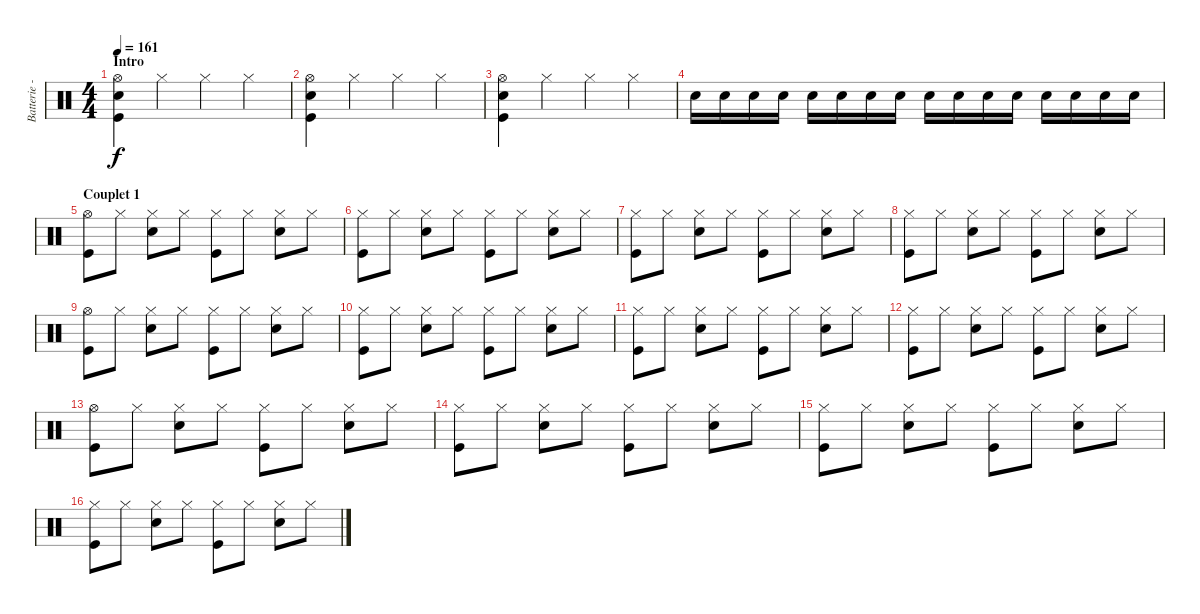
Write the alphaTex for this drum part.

\track ("Batterie - Alex" "Batterie -") {instrument percussion}
\staff {score}
\articulation defaults
\ts (4 4)
\section ("" "Intro")
\tempo 161
\clef neutral
\ks c
("Hi-Hat (open)" "Snare (hit) 2" "Kick (hit)").4{dy f} "Hi-Hat (closed)".4 "Hi-Hat (closed)".4 "Hi-Hat (closed)".4 |
("Hi-Hat (open)" "Snare (hit) 2" "Kick (hit)").4 "Hi-Hat (closed)".4 "Hi-Hat (closed)".4 "Hi-Hat (closed)".4 |
("Hi-Hat (open)" "Snare (hit) 2" "Kick (hit)").4 "Hi-Hat (closed)".4 "Hi-Hat (closed)".4 "Hi-Hat (closed)".4 |
"Snare (hit) 2".16 "Snare (hit) 2".16 "Snare (hit) 2".16 "Snare (hit) 2".16 "Snare (hit) 2".16 "Snare (hit) 2".16 "Snare (hit) 2".16 "Snare (hit) 2".16 "Snare (hit) 2".16 "Snare (hit) 2".16 "Snare (hit) 2".16 "Snare (hit) 2".16 "Snare (hit) 2".16 "Snare (hit) 2".16 "Snare (hit) 2".16 "Snare (hit) 2".16 |
\section ("" "Couplet 1")
("Hi-Hat (open)" "Kick (hit)").8 "Hi-Hat (closed)".8 ("Hi-Hat (closed)" "Snare (hit) 2").8 "Hi-Hat (closed)".8 ("Hi-Hat (closed)" "Kick (hit)").8 "Hi-Hat (closed)".8 ("Hi-Hat (closed)" "Snare (hit) 2").8 "Hi-Hat (closed)".8 |
("Hi-Hat (closed)" "Kick (hit)").8 "Hi-Hat (closed)".8 ("Hi-Hat (closed)" "Snare (hit) 2").8 "Hi-Hat (closed)".8 ("Hi-Hat (closed)" "Kick (hit)").8 "Hi-Hat (closed)".8 ("Hi-Hat (closed)" "Snare (hit) 2").8 "Hi-Hat (closed)".8 |
("Hi-Hat (closed)" "Kick (hit)").8 "Hi-Hat (closed)".8 ("Hi-Hat (closed)" "Snare (hit) 2").8 "Hi-Hat (closed)".8 ("Hi-Hat (closed)" "Kick (hit)").8 "Hi-Hat (closed)".8 ("Hi-Hat (closed)" "Snare (hit) 2").8 "Hi-Hat (closed)".8 |
("Hi-Hat (closed)" "Kick (hit)").8 "Hi-Hat (closed)".8 ("Hi-Hat (closed)" "Snare (hit) 2").8 "Hi-Hat (closed)".8 ("Hi-Hat (closed)" "Kick (hit)").8 "Hi-Hat (closed)".8 ("Hi-Hat (closed)" "Snare (hit) 2").8 "Hi-Hat (closed)".8 |
("Hi-Hat (open)" "Kick (hit)").8 "Hi-Hat (closed)".8 ("Hi-Hat (closed)" "Snare (hit) 2").8 "Hi-Hat (closed)".8 ("Hi-Hat (closed)" "Kick (hit)").8 "Hi-Hat (closed)".8 ("Hi-Hat (closed)" "Snare (hit) 2").8 "Hi-Hat (closed)".8 |
("Hi-Hat (closed)" "Kick (hit)").8 "Hi-Hat (closed)".8 ("Hi-Hat (closed)" "Snare (hit) 2").8 "Hi-Hat (closed)".8 ("Hi-Hat (closed)" "Kick (hit)").8 "Hi-Hat (closed)".8 ("Hi-Hat (closed)" "Snare (hit) 2").8 "Hi-Hat (closed)".8 |
("Hi-Hat (closed)" "Kick (hit)").8 "Hi-Hat (closed)".8 ("Hi-Hat (closed)" "Snare (hit) 2").8 "Hi-Hat (closed)".8 ("Hi-Hat (closed)" "Kick (hit)").8 "Hi-Hat (closed)".8 ("Hi-Hat (closed)" "Snare (hit) 2").8 "Hi-Hat (closed)".8 |
("Hi-Hat (closed)" "Kick (hit)").8 "Hi-Hat (closed)".8 ("Hi-Hat (closed)" "Snare (hit) 2").8 "Hi-Hat (closed)".8 ("Hi-Hat (closed)" "Kick (hit)").8 "Hi-Hat (closed)".8 ("Hi-Hat (closed)" "Snare (hit) 2").8 "Hi-Hat (closed)".8 |
("Hi-Hat (open)" "Kick (hit)").8 "Hi-Hat (closed)".8 ("Hi-Hat (closed)" "Snare (hit) 2").8 "Hi-Hat (closed)".8 ("Hi-Hat (closed)" "Kick (hit)").8 "Hi-Hat (closed)".8 ("Hi-Hat (closed)" "Snare (hit) 2").8 "Hi-Hat (closed)".8 |
("Hi-Hat (closed)" "Kick (hit)").8 "Hi-Hat (closed)".8 ("Hi-Hat (closed)" "Snare (hit) 2").8 "Hi-Hat (closed)".8 ("Hi-Hat (closed)" "Kick (hit)").8 "Hi-Hat (closed)".8 ("Hi-Hat (closed)" "Snare (hit) 2").8 "Hi-Hat (closed)".8 |
("Hi-Hat (closed)" "Kick (hit)").8 "Hi-Hat (closed)".8 ("Hi-Hat (closed)" "Snare (hit) 2").8 "Hi-Hat (closed)".8 ("Hi-Hat (closed)" "Kick (hit)").8 "Hi-Hat (closed)".8 ("Hi-Hat (closed)" "Snare (hit) 2").8 "Hi-Hat (closed)".8 |
("Hi-Hat (closed)" "Kick (hit)").8 "Hi-Hat (closed)".8 ("Hi-Hat (closed)" "Snare (hit) 2").8 "Hi-Hat (closed)".8 ("Hi-Hat (closed)" "Kick (hit)").8 "Hi-Hat (closed)".8 ("Hi-Hat (closed)" "Snare (hit) 2").8 "Hi-Hat (closed)".8
